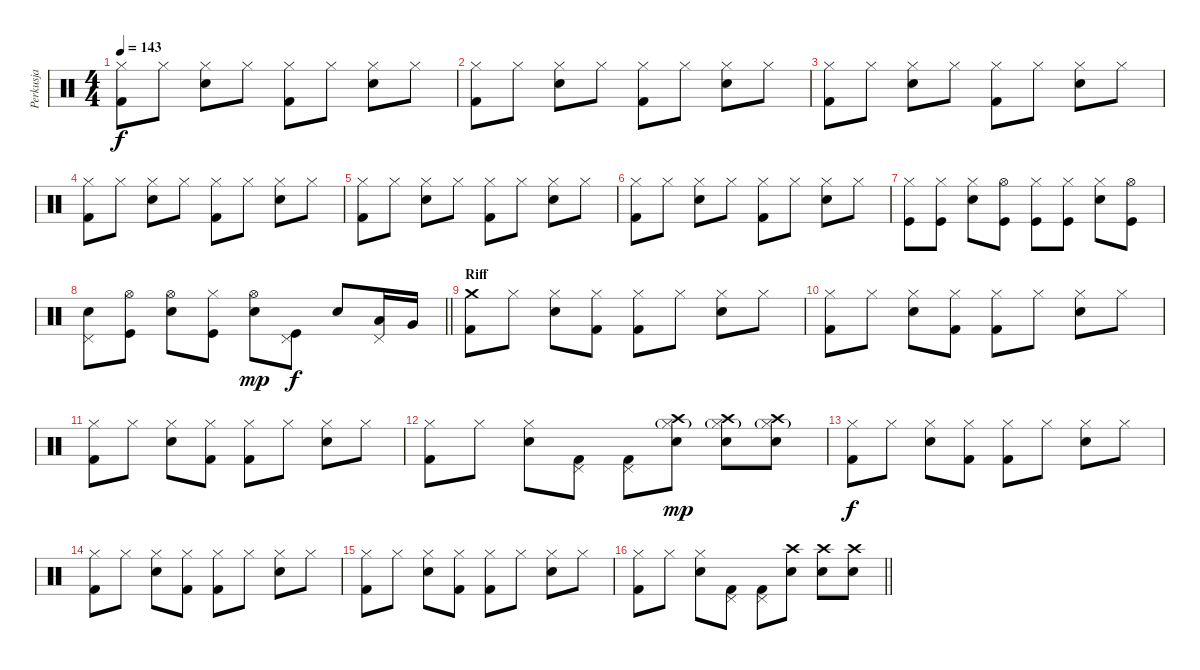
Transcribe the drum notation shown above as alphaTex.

\track ("Perkusja" "Perkusja") {instrument percussion}
\staff {score}
\articulation defaults
\ts (4 4)
\tempo 143
\clef neutral
\ks c
("Hi-Hat (closed)" "Kick (hit) 2").8{dy f} "Hi-Hat (closed)".8 ("Hi-Hat (closed)" "Electric Snare (hit)").8 "Hi-Hat (closed)".8 ("Hi-Hat (closed)" "Kick (hit) 2").8 "Hi-Hat (closed)".8 ("Hi-Hat (closed)" "Electric Snare (hit)").8 "Hi-Hat (closed)".8 |
("Hi-Hat (closed)" "Kick (hit) 2").8 "Hi-Hat (closed)".8 ("Hi-Hat (closed)" "Electric Snare (hit)").8 "Hi-Hat (closed)".8 ("Hi-Hat (closed)" "Kick (hit) 2").8 "Hi-Hat (closed)".8 ("Hi-Hat (closed)" "Electric Snare (hit)").8 "Hi-Hat (closed)".8 |
("Hi-Hat (closed)" "Kick (hit) 2").8 "Hi-Hat (closed)".8 ("Hi-Hat (closed)" "Electric Snare (hit)").8 "Hi-Hat (closed)".8 ("Hi-Hat (closed)" "Kick (hit) 2").8 "Hi-Hat (closed)".8 ("Hi-Hat (closed)" "Electric Snare (hit)").8 "Hi-Hat (closed)".8 |
("Hi-Hat (closed)" "Kick (hit) 2").8 "Hi-Hat (closed)".8 ("Hi-Hat (closed)" "Electric Snare (hit)").8 "Hi-Hat (closed)".8 ("Hi-Hat (closed)" "Kick (hit) 2").8 "Hi-Hat (closed)".8 ("Hi-Hat (closed)" "Electric Snare (hit)").8 "Hi-Hat (closed)".8 |
("Hi-Hat (closed)" "Kick (hit) 2").8 "Hi-Hat (closed)".8 ("Hi-Hat (closed)" "Electric Snare (hit)").8 "Hi-Hat (closed)".8 ("Hi-Hat (closed)" "Kick (hit) 2").8 "Hi-Hat (closed)".8 ("Hi-Hat (closed)" "Electric Snare (hit)").8 "Hi-Hat (closed)".8 |
("Hi-Hat (closed)" "Kick (hit) 2").8 "Hi-Hat (closed)".8 ("Hi-Hat (closed)" "Electric Snare (hit)").8 "Hi-Hat (closed)".8 ("Hi-Hat (closed)" "Kick (hit) 2").8 "Hi-Hat (closed)".8 ("Hi-Hat (closed)" "Electric Snare (hit)").8 "Hi-Hat (closed)".8 |
("Hi-Hat (closed)" "Kick (hit)").8 ("Hi-Hat (closed)" "Kick (hit)").8 ("Hi-Hat (closed)" "Electric Snare (hit)").8 ("Hi-Hat (open)" "Kick (hit)").8 ("Hi-Hat (closed)" "Kick (hit)").8 ("Hi-Hat (closed)" "Kick (hit)").8 ("Hi-Hat (closed)" "Electric Snare (hit)").8 ("Hi-Hat (open)" "Kick (hit)").8 |
\barLineRight lightlight
("Pedal Hi-Hat (hit)" "Electric Snare (hit)").8 ("Hi-Hat (open)" "Kick (hit)").8 ("Hi-Hat (open)" "Electric Snare (hit)").8 ("Hi-Hat (closed)" "Kick (hit)").8 ("Hi-Hat (open)" "Electric Snare (hit)").8{dy mp} ("Pedal Hi-Hat (hit)" "Kick (hit)").8{dy f} "Electric Snare (hit)".8 ("Pedal Hi-Hat (hit)" "Low Tom (hit)").16 "Very Low Tom (hit)".16 |
\section ("" "Riff")
("Crash medium (hit)" "Kick (hit) 2").8 "Hi-Hat (closed)".8 ("Hi-Hat (closed)" "Electric Snare (hit)").8 ("Hi-Hat (closed)" "Kick (hit) 2").8 ("Hi-Hat (closed)" "Kick (hit) 2").8 "Hi-Hat (closed)".8 ("Hi-Hat (closed)" "Electric Snare (hit)").8 "Hi-Hat (closed)".8 |
("Hi-Hat (closed)" "Kick (hit) 2").8 "Hi-Hat (closed)".8 ("Hi-Hat (closed)" "Electric Snare (hit)").8 ("Hi-Hat (closed)" "Kick (hit) 2").8 ("Hi-Hat (closed)" "Kick (hit) 2").8 "Hi-Hat (closed)".8 ("Hi-Hat (closed)" "Electric Snare (hit)").8 "Hi-Hat (closed)".8 |
("Hi-Hat (closed)" "Kick (hit) 2").8 "Hi-Hat (closed)".8 ("Hi-Hat (closed)" "Electric Snare (hit)").8 ("Hi-Hat (closed)" "Kick (hit) 2").8 ("Hi-Hat (closed)" "Kick (hit) 2").8 "Hi-Hat (closed)".8 ("Hi-Hat (closed)" "Electric Snare (hit)").8 "Hi-Hat (closed)".8 |
("Hi-Hat (closed)" "Kick (hit) 2").8 "Hi-Hat (closed)".8 ("Hi-Hat (closed)" "Electric Snare (hit)").8 ("Pedal Hi-Hat (hit)" "Kick (hit) 2").8 ("Pedal Hi-Hat (hit)" "Kick (hit) 2").8 ("Crash high (hit)" "Hi-Hat (closed)"{g} "Snare (hit) 2").8{dy mp} ("Crash high (hit)" "Hi-Hat (closed)"{g} "Snare (hit) 2").8 ("Crash high (hit)" "Hi-Hat (closed)"{g} "Snare (hit) 2").8 |
("Hi-Hat (closed)" "Kick (hit) 2").8{dy f} "Hi-Hat (closed)".8 ("Hi-Hat (closed)" "Electric Snare (hit)").8 ("Hi-Hat (closed)" "Kick (hit) 2").8 ("Hi-Hat (closed)" "Kick (hit) 2").8 "Hi-Hat (closed)".8 ("Hi-Hat (closed)" "Electric Snare (hit)").8 "Hi-Hat (closed)".8 |
("Hi-Hat (closed)" "Kick (hit) 2").8 "Hi-Hat (closed)".8 ("Hi-Hat (closed)" "Electric Snare (hit)").8 ("Hi-Hat (closed)" "Kick (hit) 2").8 ("Hi-Hat (closed)" "Kick (hit) 2").8 "Hi-Hat (closed)".8 ("Hi-Hat (closed)" "Electric Snare (hit)").8 "Hi-Hat (closed)".8 |
("Hi-Hat (closed)" "Kick (hit) 2").8 "Hi-Hat (closed)".8 ("Hi-Hat (closed)" "Electric Snare (hit)").8 ("Hi-Hat (closed)" "Kick (hit) 2").8 ("Hi-Hat (closed)" "Kick (hit) 2").8 "Hi-Hat (closed)".8 ("Hi-Hat (closed)" "Electric Snare (hit)").8 "Hi-Hat (closed)".8 |
\barLineRight lightlight
("Hi-Hat (closed)" "Kick (hit) 2").8 "Hi-Hat (closed)".8 ("Hi-Hat (closed)" "Electric Snare (hit)").8 ("Pedal Hi-Hat (hit)" "Kick (hit) 2").8 ("Pedal Hi-Hat (hit)" "Kick (hit) 2").8 ("Crash high (hit)" "Snare (hit) 2").8 ("Crash high (hit)" "Snare (hit) 2").8 ("Crash high (hit)" "Snare (hit) 2").8
